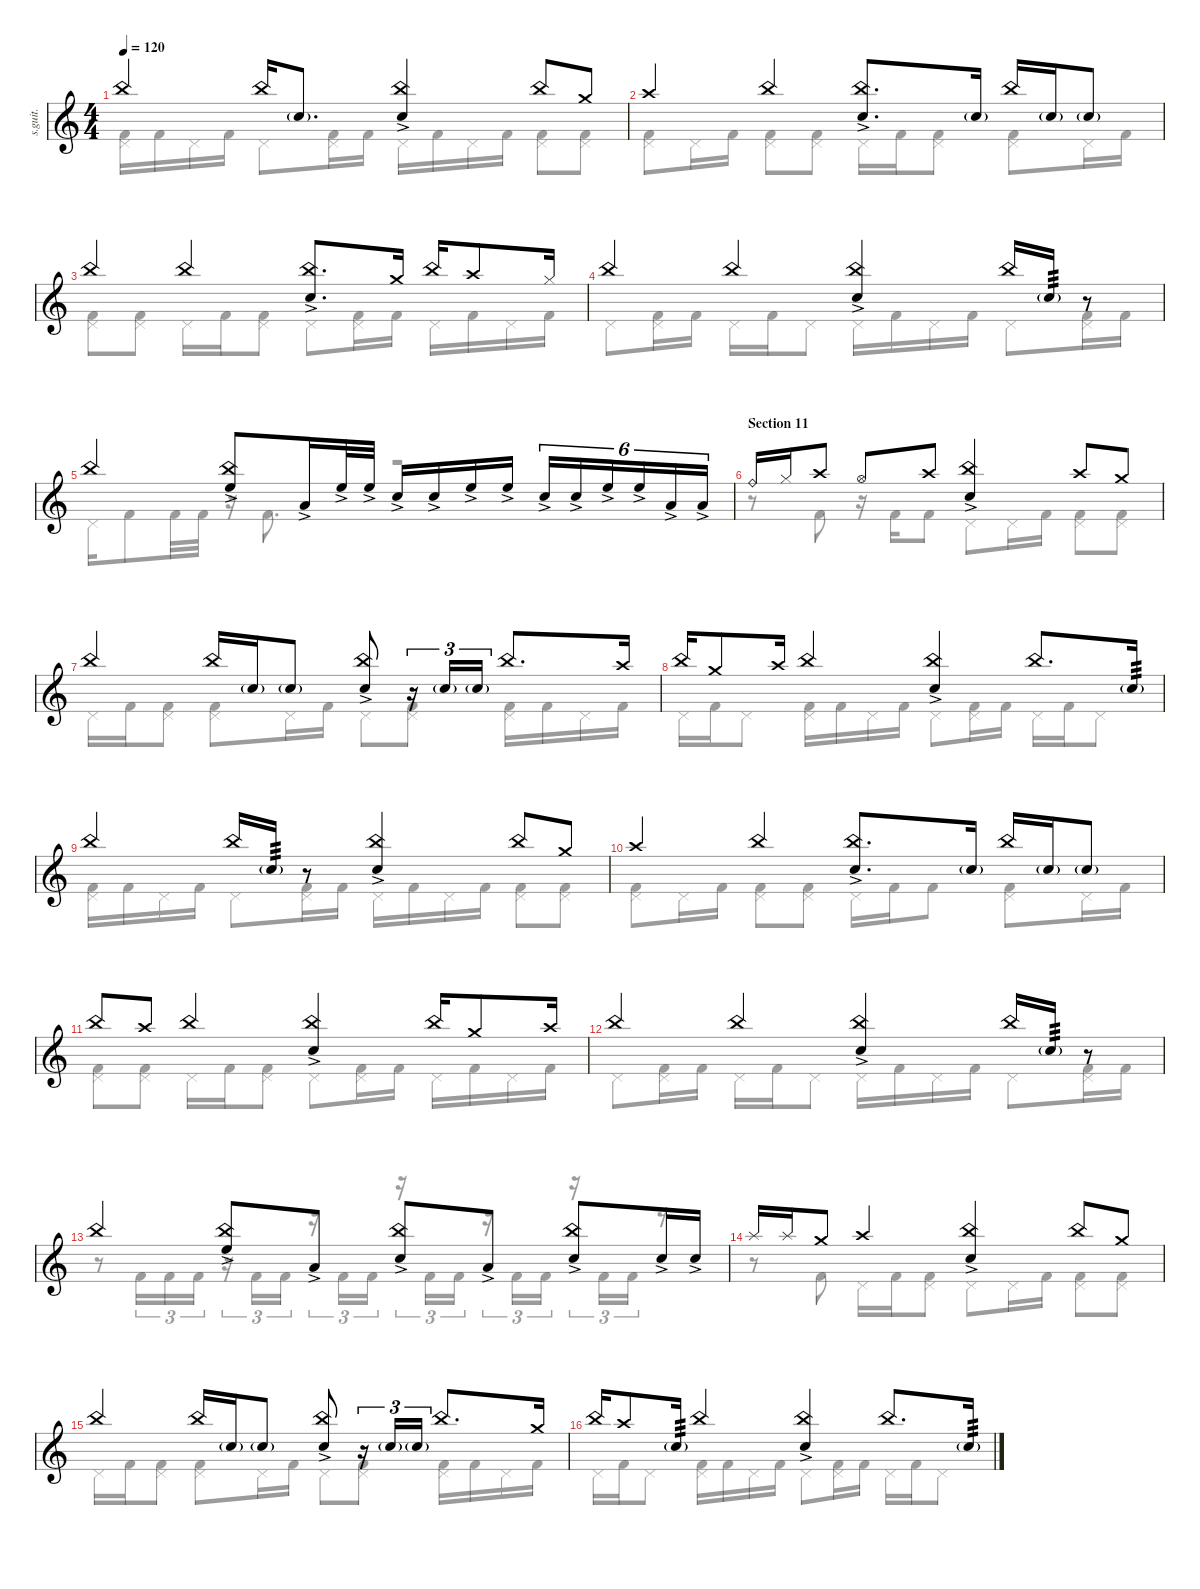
\defaultSystemsLayout 4
\hideDynamics
\bracketExtendMode nobrackets
\track ("Matt Halpern" "s.guit.") {instrument percussion}
\staff {score}
\articulation defaults
\voice
\ts (4 4)
\tempo 120
\clef g2
\ks c "China (hit)".4{lyrics (0 "") lyrics (1 "") lyrics (2 "") lyrics (3 "") lyrics (4 "") dy f} "China (hit)".16{lyrics (0 "") lyrics (1 "") lyrics (2 "") lyrics (3 "") lyrics (4 "")} "Snare (hit) 2"{g}.8{d lyrics (0 "") lyrics (1 "") lyrics (2 "") lyrics (3 "") lyrics (4 "")}
("China (hit)" "Snare (hit) 2"{ac}).4{lyrics (0 "") lyrics (1 "") lyrics (2 "") lyrics (3 "") lyrics (4 "")} "China (hit)".8{lyrics (0 "") lyrics (1 "") lyrics (2 "") lyrics (3 "") lyrics (4 "")} "Crash medium (hit)".8{lyrics (0 "") lyrics (1 "") lyrics (2 "") lyrics (3 "") lyrics (4 "")} |
"Crash high (hit)".4{lyrics (0 "") lyrics (1 "") lyrics (2 "") lyrics (3 "") lyrics (4 "")} "China (hit)".4{lyrics (0 "") lyrics (1 "") lyrics (2 "") lyrics (3 "") lyrics (4 "")} ("China (hit)" "Snare (hit) 2"{ac}).8{d lyrics (0 "") lyrics (1 "") lyrics (2 "") lyrics (3 "") lyrics (4 "")} "Snare (hit) 2"{g}.16{lyrics (0 "") lyrics (1 "") lyrics (2 "") lyrics (3 "") lyrics (4 "")} "China (hit)".16{lyrics (0 "") lyrics (1 "") lyrics (2 "") lyrics (3 "") lyrics (4 "")} "Snare (hit) 2"{g}.16{lyrics (0 "") lyrics (1 "") lyrics (2 "") lyrics (3 "") lyrics (4 "")} "Snare (hit) 2"{g}.8{lyrics (0 "") lyrics (1 "") lyrics (2 "") lyrics (3 "") lyrics (4 "")} |
"China (hit)".4{lyrics (0 "") lyrics (1 "") lyrics (2 "") lyrics (3 "") lyrics (4 "")} "China (hit)".4{lyrics (0 "") lyrics (1 "") lyrics (2 "") lyrics (3 "") lyrics (4 "")} ("China (hit)" "Snare (hit) 2"{ac}).8{d lyrics (0 "") lyrics (1 "") lyrics (2 "") lyrics (3 "") lyrics (4 "")} "Crash medium (hit)".16{lyrics (0 "") lyrics (1 "") lyrics (2 "") lyrics (3 "") lyrics (4 "")} "China (hit)".16{lyrics (0 "") lyrics (1 "") lyrics (2 "") lyrics (3 "") lyrics (4 "")} "Crash high (hit)".8{lyrics (0 "") lyrics (1 "") lyrics (2 "") lyrics (3 "") lyrics (4 "")} "Hi-Hat (closed)".16{lyrics (0 "") lyrics (1 "") lyrics (2 "") lyrics (3 "") lyrics (4 "")} |
"China (hit)".4{lyrics (0 "") lyrics (1 "") lyrics (2 "") lyrics (3 "") lyrics (4 "")} "China (hit)".4{lyrics (0 "") lyrics (1 "") lyrics (2 "") lyrics (3 "") lyrics (4 "")} ("China (hit)" "Snare (hit) 2"{ac}).4{lyrics (0 "") lyrics (1 "") lyrics (2 "") lyrics (3 "") lyrics (4 "")} "China (hit)".16{lyrics (0 "") lyrics (1 "") lyrics (2 "") lyrics (3 "") lyrics (4 "")} "Snare (hit) 2"{g}.16{lyrics (0 "") lyrics (1 "") lyrics (2 "") lyrics (3 "") lyrics (4 "") tp 3} r.8 |
"China (hit)".4{lyrics (0 "") lyrics (1 "") lyrics (2 "") lyrics (3 "") lyrics (4 "")} ("High Floor Tom (hit)"{ac} "China (hit)").8{lyrics (0 "") lyrics (1 "") lyrics (2 "") lyrics (3 "") lyrics (4 "")} "Low Tom (hit)"{ac}.16{lyrics (0 "") lyrics (1 "") lyrics (2 "") lyrics (3 "") lyrics (4 "")} "High Floor Tom (hit)"{ac}.32{lyrics (0 "") lyrics (1 "") lyrics (2 "") lyrics (3 "") lyrics (4 "")} "High Floor Tom (hit)"{ac}.32{lyrics (0 "") lyrics (1 "") lyrics (2 "") lyrics (3 "") lyrics (4 "")} "Snare (hit) 2"{ac}.16{lyrics (0 "") lyrics (1 "") lyrics (2 "") lyrics (3 "") lyrics (4 "")} "Snare (hit) 2"{ac}.16{lyrics (0 "") lyrics (1 "") lyrics (2 "") lyrics (3 "") lyrics (4 "")} "High Floor Tom (hit)"{ac}.16{lyrics (0 "") lyrics (1 "") lyrics (2 "") lyrics (3 "") lyrics (4 "")} "High Floor Tom (hit)"{ac}.16{lyrics (0 "") lyrics (1 "") lyrics (2 "") lyrics (3 "") lyrics (4 "")} "Snare (hit) 2"{ac}.16{tu (6 4) lyrics (0 "") lyrics (1 "") lyrics (2 "") lyrics (3 "") lyrics (4 "")} "Snare (hit) 2"{ac}.16{tu (6 4) lyrics (0 "") lyrics (1 "") lyrics (2 "") lyrics (3 "") lyrics (4 "")} "High Floor Tom (hit)"{ac}.16{tu (6 4) lyrics (0 "") lyrics (1 "") lyrics (2 "") lyrics (3 "") lyrics (4 "")} "High Floor Tom (hit)"{ac}.16{tu (6 4) lyrics (0 "") lyrics (1 "") lyrics (2 "") lyrics (3 "") lyrics (4 "")} "Low Tom (hit)"{ac}.16{tu (6 4) lyrics (0 "") lyrics (1 "") lyrics (2 "") lyrics (3 "") lyrics (4 "")} "Low Tom (hit)"{ac}.16{tu (6 4) lyrics (0 "") lyrics (1 "") lyrics (2 "") lyrics (3 "") lyrics (4 "")} |
\section ("" "Section 11")
"Ride (bell)".16{lyrics (0 "") lyrics (1 "") lyrics (2 "") lyrics (3 "") lyrics (4 "")} "Hi-Hat (closed)".16{lyrics (0 "") lyrics (1 "") lyrics (2 "") lyrics (3 "") lyrics (4 "")} "Crash high (hit)".8{lyrics (0 "") lyrics (1 "") lyrics (2 "") lyrics (3 "") lyrics (4 "")} "Hi-Hat (open)".8{lyrics (0 "") lyrics (1 "") lyrics (2 "") lyrics (3 "") lyrics (4 "")} "Crash high (hit)".8{lyrics (0 "") lyrics (1 "") lyrics (2 "") lyrics (3 "") lyrics (4 "")} ("China (hit)" "Snare (hit) 2"{ac}).4{lyrics (0 "") lyrics (1 "") lyrics (2 "") lyrics (3 "") lyrics (4 "")} "Crash high (hit)".8{lyrics (0 "") lyrics (1 "") lyrics (2 "") lyrics (3 "") lyrics (4 "")} "Crash medium (hit)".8{lyrics (0 "") lyrics (1 "") lyrics (2 "") lyrics (3 "") lyrics (4 "")} |
"China (hit)".4{lyrics (0 "") lyrics (1 "") lyrics (2 "") lyrics (3 "") lyrics (4 "")} "China (hit)".16{lyrics (0 "") lyrics (1 "") lyrics (2 "") lyrics (3 "") lyrics (4 "")} "Snare (hit) 2"{g}.16{lyrics (0 "") lyrics (1 "") lyrics (2 "") lyrics (3 "") lyrics (4 "")} "Snare (hit) 2"{g}.8{lyrics (0 "") lyrics (1 "") lyrics (2 "") lyrics (3 "") lyrics (4 "")} ("Snare (hit) 2"{ac} "China (hit)").8{lyrics (0 "") lyrics (1 "") lyrics (2 "") lyrics (3 "") lyrics (4 "")} r.16{tu (3 2)} "Snare (hit) 2"{g}.16{tu (3 2) lyrics (0 "") lyrics (1 "") lyrics (2 "") lyrics (3 "") lyrics (4 "")} "Snare (hit) 2"{g}.16{tu (3 2) lyrics (0 "") lyrics (1 "") lyrics (2 "") lyrics (3 "") lyrics (4 "")} "China (hit)".8{d lyrics (0 "") lyrics (1 "") lyrics (2 "") lyrics (3 "") lyrics (4 "")} "Crash high (hit)".16{lyrics (0 "") lyrics (1 "") lyrics (2 "") lyrics (3 "") lyrics (4 "")} |
"China (hit)".16{lyrics (0 "") lyrics (1 "") lyrics (2 "") lyrics (3 "") lyrics (4 "")} "Crash medium (hit)".8{lyrics (0 "") lyrics (1 "") lyrics (2 "") lyrics (3 "") lyrics (4 "")} "Crash high (hit)".16{lyrics (0 "") lyrics (1 "") lyrics (2 "") lyrics (3 "") lyrics (4 "")} "China (hit)".4{lyrics (0 "") lyrics (1 "") lyrics (2 "") lyrics (3 "") lyrics (4 "")} ("China (hit)" "Snare (hit) 2"{ac}).4{lyrics (0 "") lyrics (1 "") lyrics (2 "") lyrics (3 "") lyrics (4 "")} "China (hit)".8{d lyrics (0 "") lyrics (1 "") lyrics (2 "") lyrics (3 "") lyrics (4 "")} "Snare (hit) 2"{g}.16{lyrics (0 "") lyrics (1 "") lyrics (2 "") lyrics (3 "") lyrics (4 "") tp 3} |
"China (hit)".4{lyrics (0 "") lyrics (1 "") lyrics (2 "") lyrics (3 "") lyrics (4 "")} "China (hit)".16{lyrics (0 "") lyrics (1 "") lyrics (2 "") lyrics (3 "") lyrics (4 "")} "Snare (hit) 2"{g}.16{lyrics (0 "") lyrics (1 "") lyrics (2 "") lyrics (3 "") lyrics (4 "") tp 3} r.8 ("China (hit)" "Snare (hit) 2"{ac}).4{lyrics (0 "") lyrics (1 "") lyrics (2 "") lyrics (3 "") lyrics (4 "")} "China (hit)".8{lyrics (0 "") lyrics (1 "") lyrics (2 "") lyrics (3 "") lyrics (4 "")} "Crash medium (hit)".8{lyrics (0 "") lyrics (1 "") lyrics (2 "") lyrics (3 "") lyrics (4 "")} |
"Crash high (hit)".4{lyrics (0 "") lyrics (1 "") lyrics (2 "") lyrics (3 "") lyrics (4 "")} "China (hit)".4{lyrics (0 "") lyrics (1 "") lyrics (2 "") lyrics (3 "") lyrics (4 "")} ("Snare (hit) 2"{ac} "China (hit)").8{d lyrics (0 "") lyrics (1 "") lyrics (2 "") lyrics (3 "") lyrics (4 "")} "Snare (hit) 2"{g}.16{lyrics (0 "") lyrics (1 "") lyrics (2 "") lyrics (3 "") lyrics (4 "")} "China (hit)".16{lyrics (0 "") lyrics (1 "") lyrics (2 "") lyrics (3 "") lyrics (4 "")} "Snare (hit) 2"{g}.16{lyrics (0 "") lyrics (1 "") lyrics (2 "") lyrics (3 "") lyrics (4 "")} "Snare (hit) 2"{g}.8{lyrics (0 "") lyrics (1 "") lyrics (2 "") lyrics (3 "") lyrics (4 "")} |
"China (hit)".8{lyrics (0 "") lyrics (1 "") lyrics (2 "") lyrics (3 "") lyrics (4 "")} "Crash high (hit)".8{lyrics (0 "") lyrics (1 "") lyrics (2 "") lyrics (3 "") lyrics (4 "")} "China (hit)".4{lyrics (0 "") lyrics (1 "") lyrics (2 "") lyrics (3 "") lyrics (4 "")} ("China (hit)" "Snare (hit) 2"{ac}).4{lyrics (0 "") lyrics (1 "") lyrics (2 "") lyrics (3 "") lyrics (4 "")} "China (hit)".16{lyrics (0 "") lyrics (1 "") lyrics (2 "") lyrics (3 "") lyrics (4 "")} "Crash medium (hit)".8{lyrics (0 "") lyrics (1 "") lyrics (2 "") lyrics (3 "") lyrics (4 "")} "Crash high (hit)".16{lyrics (0 "") lyrics (1 "") lyrics (2 "") lyrics (3 "") lyrics (4 "")} |
"China (hit)".4{lyrics (0 "") lyrics (1 "") lyrics (2 "") lyrics (3 "") lyrics (4 "")} "China (hit)".4{lyrics (0 "") lyrics (1 "") lyrics (2 "") lyrics (3 "") lyrics (4 "")} ("China (hit)" "Snare (hit) 2"{ac}).4{lyrics (0 "") lyrics (1 "") lyrics (2 "") lyrics (3 "") lyrics (4 "")} "China (hit)".16{lyrics (0 "") lyrics (1 "") lyrics (2 "") lyrics (3 "") lyrics (4 "")} "Snare (hit) 2"{g}.16{lyrics (0 "") lyrics (1 "") lyrics (2 "") lyrics (3 "") lyrics (4 "") tp 3} r.8 |
"China (hit)".4{lyrics (0 "") lyrics (1 "") lyrics (2 "") lyrics (3 "") lyrics (4 "")} ("China (hit)" "High Floor Tom (hit)"{ac}).8{lyrics (0 "") lyrics (1 "") lyrics (2 "") lyrics (3 "") lyrics (4 "")} "Low Tom (hit)"{ac}.8{lyrics (0 "") lyrics (1 "") lyrics (2 "") lyrics (3 "") lyrics (4 "")} ("Snare (hit) 2"{ac} "China (hit)").8{lyrics (0 "") lyrics (1 "") lyrics (2 "") lyrics (3 "") lyrics (4 "")} "Low Tom (hit)"{ac}.8{lyrics (0 "") lyrics (1 "") lyrics (2 "") lyrics (3 "") lyrics (4 "")} ("Snare (hit) 2"{ac} "China (hit)").8{lyrics (0 "") lyrics (1 "") lyrics (2 "") lyrics (3 "") lyrics (4 "")} "Snare (hit) 2"{ac}.16{lyrics (0 "") lyrics (1 "") lyrics (2 "") lyrics (3 "") lyrics (4 "")} "Snare (hit) 2"{ac}.16{lyrics (0 "") lyrics (1 "") lyrics (2 "") lyrics (3 "") lyrics (4 "")} |
"Splash (hit)".16{lyrics (0 "") lyrics (1 "") lyrics (2 "") lyrics (3 "") lyrics (4 "")} "Splash (hit)".16{lyrics (0 "") lyrics (1 "") lyrics (2 "") lyrics (3 "") lyrics (4 "")} "Crash medium (hit)".8{lyrics (0 "") lyrics (1 "") lyrics (2 "") lyrics (3 "") lyrics (4 "")} "Crash high (hit)".4{lyrics (0 "") lyrics (1 "") lyrics (2 "") lyrics (3 "") lyrics (4 "")} ("China (hit)" "Snare (hit) 2"{ac}).4{lyrics (0 "") lyrics (1 "") lyrics (2 "") lyrics (3 "") lyrics (4 "")} "China (hit)".8{lyrics (0 "") lyrics (1 "") lyrics (2 "") lyrics (3 "") lyrics (4 "")} "Crash medium (hit)".8{lyrics (0 "") lyrics (1 "") lyrics (2 "") lyrics (3 "") lyrics (4 "")} |
"China (hit)".4{lyrics (0 "") lyrics (1 "") lyrics (2 "") lyrics (3 "") lyrics (4 "")} "China (hit)".16{lyrics (0 "") lyrics (1 "") lyrics (2 "") lyrics (3 "") lyrics (4 "")} "Snare (hit) 2"{g}.16{lyrics (0 "") lyrics (1 "") lyrics (2 "") lyrics (3 "") lyrics (4 "")} "Snare (hit) 2"{g}.8{lyrics (0 "") lyrics (1 "") lyrics (2 "") lyrics (3 "") lyrics (4 "")} ("China (hit)" "Snare (hit) 2"{ac}).8{lyrics (0 "") lyrics (1 "") lyrics (2 "") lyrics (3 "") lyrics (4 "")} r.16{tu (3 2)} "Snare (hit) 2"{g}.16{tu (3 2) lyrics (0 "") lyrics (1 "") lyrics (2 "") lyrics (3 "") lyrics (4 "")} "Snare (hit) 2"{g}.16{tu (3 2) lyrics (0 "") lyrics (1 "") lyrics (2 "") lyrics (3 "") lyrics (4 "")} "China (hit)".8{d lyrics (0 "") lyrics (1 "") lyrics (2 "") lyrics (3 "") lyrics (4 "")} "Crash medium (hit)".16{lyrics (0 "") lyrics (1 "") lyrics (2 "") lyrics (3 "") lyrics (4 "")} |
"China (hit)".16{lyrics (0 "") lyrics (1 "") lyrics (2 "") lyrics (3 "") lyrics (4 "")} "Crash high (hit)".8{lyrics (0 "") lyrics (1 "") lyrics (2 "") lyrics (3 "") lyrics (4 "")} "Snare (hit) 2"{g}.16{lyrics (0 "") lyrics (1 "") lyrics (2 "") lyrics (3 "") lyrics (4 "") tp 3} "China (hit)".4{lyrics (0 "") lyrics (1 "") lyrics (2 "") lyrics (3 "") lyrics (4 "")} ("China (hit)" "Snare (hit) 2"{ac}).4{lyrics (0 "") lyrics (1 "") lyrics (2 "") lyrics (3 "") lyrics (4 "")} "China (hit)".8{d lyrics (0 "") lyrics (1 "") lyrics (2 "") lyrics (3 "") lyrics (4 "")} "Snare (hit) 2"{g}.16{lyrics (0 "") lyrics (1 "") lyrics (2 "") lyrics (3 "") lyrics (4 "") tp 3}
\voice
\clef g2
\ottava regular
\simile none
\ks c
("Pedal Hi-Hat (hit)" "Kick (hit) 2").16{lyrics (0 "") lyrics (1 "") lyrics (2 "") lyrics (3 "") lyrics (4 "") dy f} "Kick (hit) 2".16{lyrics (0 "") lyrics (1 "") lyrics (2 "") lyrics (3 "") lyrics (4 "")} "Pedal Hi-Hat (hit)".16{lyrics (0 "") lyrics (1 "") lyrics (2 "") lyrics (3 "") lyrics (4 "")} "Kick (hit) 2".16{lyrics (0 "") lyrics (1 "") lyrics (2 "") lyrics (3 "") lyrics (4 "")} "Pedal Hi-Hat (hit)".8{lyrics (0 "") lyrics (1 "") lyrics (2 "") lyrics (3 "") lyrics (4 "")} ("Pedal Hi-Hat (hit)" "Kick (hit) 2").16{lyrics (0 "") lyrics (1 "") lyrics (2 "") lyrics (3 "") lyrics (4 "")} "Kick (hit) 2".16{lyrics (0 "") lyrics (1 "") lyrics (2 "") lyrics (3 "") lyrics (4 "")} "Pedal Hi-Hat (hit)".16{lyrics (0 "") lyrics (1 "") lyrics (2 "") lyrics (3 "") lyrics (4 "")} "Kick (hit) 2".16{lyrics (0 "") lyrics (1 "") lyrics (2 "") lyrics (3 "") lyrics (4 "")} "Pedal Hi-Hat (hit)".16{lyrics (0 "") lyrics (1 "") lyrics (2 "") lyrics (3 "") lyrics (4 "")} "Kick (hit) 2".16{lyrics (0 "") lyrics (1 "") lyrics (2 "") lyrics (3 "") lyrics (4 "")} ("Pedal Hi-Hat (hit)" "Kick (hit) 2").8{lyrics (0 "") lyrics (1 "") lyrics (2 "") lyrics (3 "") lyrics (4 "")} ("Kick (hit) 2" "Pedal Hi-Hat (hit)").8{lyrics (0 "") lyrics (1 "") lyrics (2 "") lyrics (3 "") lyrics (4 "")} |
("Kick (hit) 2" "Pedal Hi-Hat (hit)").8{lyrics (0 "") lyrics (1 "") lyrics (2 "") lyrics (3 "") lyrics (4 "")} "Pedal Hi-Hat (hit)".16{lyrics (0 "") lyrics (1 "") lyrics (2 "") lyrics (3 "") lyrics (4 "")} "Kick (hit) 2".16{lyrics (0 "") lyrics (1 "") lyrics (2 "") lyrics (3 "") lyrics (4 "")} ("Pedal Hi-Hat (hit)" "Kick (hit) 2").8{lyrics (0 "") lyrics (1 "") lyrics (2 "") lyrics (3 "") lyrics (4 "")} ("Pedal Hi-Hat (hit)" "Kick (hit) 2").8{lyrics (0 "") lyrics (1 "") lyrics (2 "") lyrics (3 "") lyrics (4 "")} "Pedal Hi-Hat (hit)".16{lyrics (0 "") lyrics (1 "") lyrics (2 "") lyrics (3 "") lyrics (4 "")} "Kick (hit) 2".16{lyrics (0 "") lyrics (1 "") lyrics (2 "") lyrics (3 "") lyrics (4 "")} ("Kick (hit) 2" "Pedal Hi-Hat (hit)").8{lyrics (0 "") lyrics (1 "") lyrics (2 "") lyrics (3 "") lyrics (4 "")} ("Pedal Hi-Hat (hit)" "Kick (hit) 2").8{lyrics (0 "") lyrics (1 "") lyrics (2 "") lyrics (3 "") lyrics (4 "")} "Pedal Hi-Hat (hit)".16{lyrics (0 "") lyrics (1 "") lyrics (2 "") lyrics (3 "") lyrics (4 "")} "Kick (hit) 2".16{lyrics (0 "") lyrics (1 "") lyrics (2 "") lyrics (3 "") lyrics (4 "")} |
("Kick (hit) 2" "Pedal Hi-Hat (hit)").8{lyrics (0 "") lyrics (1 "") lyrics (2 "") lyrics (3 "") lyrics (4 "")} ("Kick (hit) 2" "Pedal Hi-Hat (hit)").8{lyrics (0 "") lyrics (1 "") lyrics (2 "") lyrics (3 "") lyrics (4 "")} "Pedal Hi-Hat (hit)".16{lyrics (0 "") lyrics (1 "") lyrics (2 "") lyrics (3 "") lyrics (4 "")} "Kick (hit) 2".16{lyrics (0 "") lyrics (1 "") lyrics (2 "") lyrics (3 "") lyrics (4 "")} ("Kick (hit) 2" "Pedal Hi-Hat (hit)").8{lyrics (0 "") lyrics (1 "") lyrics (2 "") lyrics (3 "") lyrics (4 "")} "Pedal Hi-Hat (hit)".8{lyrics (0 "") lyrics (1 "") lyrics (2 "") lyrics (3 "") lyrics (4 "")} ("Pedal Hi-Hat (hit)" "Kick (hit) 2").16{lyrics (0 "") lyrics (1 "") lyrics (2 "") lyrics (3 "") lyrics (4 "")} "Kick (hit) 2".16{lyrics (0 "") lyrics (1 "") lyrics (2 "") lyrics (3 "") lyrics (4 "")} "Pedal Hi-Hat (hit)".16{lyrics (0 "") lyrics (1 "") lyrics (2 "") lyrics (3 "") lyrics (4 "")} "Kick (hit) 2".16{lyrics (0 "") lyrics (1 "") lyrics (2 "") lyrics (3 "") lyrics (4 "")} "Pedal Hi-Hat (hit)".16{lyrics (0 "") lyrics (1 "") lyrics (2 "") lyrics (3 "") lyrics (4 "")} "Kick (hit) 2".16{lyrics (0 "") lyrics (1 "") lyrics (2 "") lyrics (3 "") lyrics (4 "")} |
"Pedal Hi-Hat (hit)".8{lyrics (0 "") lyrics (1 "") lyrics (2 "") lyrics (3 "") lyrics (4 "")} ("Kick (hit) 2" "Pedal Hi-Hat (hit)").16{lyrics (0 "") lyrics (1 "") lyrics (2 "") lyrics (3 "") lyrics (4 "")} "Kick (hit) 2".16{lyrics (0 "") lyrics (1 "") lyrics (2 "") lyrics (3 "") lyrics (4 "")} "Pedal Hi-Hat (hit)".16{lyrics (0 "") lyrics (1 "") lyrics (2 "") lyrics (3 "") lyrics (4 "")} "Kick (hit) 2".16{lyrics (0 "") lyrics (1 "") lyrics (2 "") lyrics (3 "") lyrics (4 "")} "Pedal Hi-Hat (hit)".8{lyrics (0 "") lyrics (1 "") lyrics (2 "") lyrics (3 "") lyrics (4 "")} "Pedal Hi-Hat (hit)".16{lyrics (0 "") lyrics (1 "") lyrics (2 "") lyrics (3 "") lyrics (4 "")} "Kick (hit) 2".16{lyrics (0 "") lyrics (1 "") lyrics (2 "") lyrics (3 "") lyrics (4 "")} "Pedal Hi-Hat (hit)".16{lyrics (0 "") lyrics (1 "") lyrics (2 "") lyrics (3 "") lyrics (4 "")} "Kick (hit) 2".16{lyrics (0 "") lyrics (1 "") lyrics (2 "") lyrics (3 "") lyrics (4 "")} "Pedal Hi-Hat (hit)".8{lyrics (0 "") lyrics (1 "") lyrics (2 "") lyrics (3 "") lyrics (4 "")} ("Kick (hit) 2" "Pedal Hi-Hat (hit)").16{lyrics (0 "") lyrics (1 "") lyrics (2 "") lyrics (3 "") lyrics (4 "")} "Kick (hit) 2".16{lyrics (0 "") lyrics (1 "") lyrics (2 "") lyrics (3 "") lyrics (4 "")} |
"Pedal Hi-Hat (hit)".16{lyrics (0 "") lyrics (1 "") lyrics (2 "") lyrics (3 "") lyrics (4 "")} "Kick (hit) 2".8{lyrics (0 "") lyrics (1 "") lyrics (2 "") lyrics (3 "") lyrics (4 "")} "Kick (hit) 2".32{lyrics (0 "") lyrics (1 "") lyrics (2 "") lyrics (3 "") lyrics (4 "")} "Kick (hit) 2".32{lyrics (0 "") lyrics (1 "") lyrics (2 "") lyrics (3 "") lyrics (4 "")} r.16 "Kick (hit) 2".8{d lyrics (0 "") lyrics (1 "") lyrics (2 "") lyrics (3 "") lyrics (4 "")} r.2 |
r.8 "Kick (hit) 2".8{lyrics (0 "") lyrics (1 "") lyrics (2 "") lyrics (3 "") lyrics (4 "")} r.16 "Kick (hit) 2".16{lyrics (0 "") lyrics (1 "") lyrics (2 "") lyrics (3 "") lyrics (4 "")} "Kick (hit) 2".8{lyrics (0 "") lyrics (1 "") lyrics (2 "") lyrics (3 "") lyrics (4 "")} "Pedal Hi-Hat (hit)".8{lyrics (0 "") lyrics (1 "") lyrics (2 "") lyrics (3 "") lyrics (4 "")} "Pedal Hi-Hat (hit)".16{lyrics (0 "") lyrics (1 "") lyrics (2 "") lyrics (3 "") lyrics (4 "")} "Kick (hit) 2".16{lyrics (0 "") lyrics (1 "") lyrics (2 "") lyrics (3 "") lyrics (4 "")} ("Kick (hit) 2" "Pedal Hi-Hat (hit)").8{lyrics (0 "") lyrics (1 "") lyrics (2 "") lyrics (3 "") lyrics (4 "")} ("Kick (hit) 2" "Pedal Hi-Hat (hit)").8{lyrics (0 "") lyrics (1 "") lyrics (2 "") lyrics (3 "") lyrics (4 "")} |
"Pedal Hi-Hat (hit)".16{lyrics (0 "") lyrics (1 "") lyrics (2 "") lyrics (3 "") lyrics (4 "")} "Kick (hit) 2".16{lyrics (0 "") lyrics (1 "") lyrics (2 "") lyrics (3 "") lyrics (4 "")} ("Kick (hit) 2" "Pedal Hi-Hat (hit)").8{lyrics (0 "") lyrics (1 "") lyrics (2 "") lyrics (3 "") lyrics (4 "")} ("Pedal Hi-Hat (hit)" "Kick (hit) 2").8{lyrics (0 "") lyrics (1 "") lyrics (2 "") lyrics (3 "") lyrics (4 "")} "Pedal Hi-Hat (hit)".16{lyrics (0 "") lyrics (1 "") lyrics (2 "") lyrics (3 "") lyrics (4 "")} "Kick (hit) 2".16{lyrics (0 "") lyrics (1 "") lyrics (2 "") lyrics (3 "") lyrics (4 "")} "Pedal Hi-Hat (hit)".8{lyrics (0 "") lyrics (1 "") lyrics (2 "") lyrics (3 "") lyrics (4 "")} ("Kick (hit) 2" "Pedal Hi-Hat (hit)").8{lyrics (0 "") lyrics (1 "") lyrics (2 "") lyrics (3 "") lyrics (4 "")} ("Pedal Hi-Hat (hit)" "Kick (hit) 2").16{lyrics (0 "") lyrics (1 "") lyrics (2 "") lyrics (3 "") lyrics (4 "")} "Kick (hit) 2".16{lyrics (0 "") lyrics (1 "") lyrics (2 "") lyrics (3 "") lyrics (4 "")} "Pedal Hi-Hat (hit)".16{lyrics (0 "") lyrics (1 "") lyrics (2 "") lyrics (3 "") lyrics (4 "")} "Kick (hit) 2".16{lyrics (0 "") lyrics (1 "") lyrics (2 "") lyrics (3 "") lyrics (4 "")} |
"Pedal Hi-Hat (hit)".16{lyrics (0 "") lyrics (1 "") lyrics (2 "") lyrics (3 "") lyrics (4 "")} "Kick (hit) 2".16{lyrics (0 "") lyrics (1 "") lyrics (2 "") lyrics (3 "") lyrics (4 "")} "Pedal Hi-Hat (hit)".8{lyrics (0 "") lyrics (1 "") lyrics (2 "") lyrics (3 "") lyrics (4 "")} ("Pedal Hi-Hat (hit)" "Kick (hit) 2").16{lyrics (0 "") lyrics (1 "") lyrics (2 "") lyrics (3 "") lyrics (4 "")} "Kick (hit) 2".16{lyrics (0 "") lyrics (1 "") lyrics (2 "") lyrics (3 "") lyrics (4 "")} "Pedal Hi-Hat (hit)".16{lyrics (0 "") lyrics (1 "") lyrics (2 "") lyrics (3 "") lyrics (4 "")} "Kick (hit) 2".16{lyrics (0 "") lyrics (1 "") lyrics (2 "") lyrics (3 "") lyrics (4 "")} "Pedal Hi-Hat (hit)".8{lyrics (0 "") lyrics (1 "") lyrics (2 "") lyrics (3 "") lyrics (4 "")} ("Pedal Hi-Hat (hit)" "Kick (hit) 2").16{lyrics (0 "") lyrics (1 "") lyrics (2 "") lyrics (3 "") lyrics (4 "")} "Kick (hit) 2".16{lyrics (0 "") lyrics (1 "") lyrics (2 "") lyrics (3 "") lyrics (4 "")} "Pedal Hi-Hat (hit)".16{lyrics (0 "") lyrics (1 "") lyrics (2 "") lyrics (3 "") lyrics (4 "")} "Kick (hit) 2".16{lyrics (0 "") lyrics (1 "") lyrics (2 "") lyrics (3 "") lyrics (4 "")} "Pedal Hi-Hat (hit)".8{lyrics (0 "") lyrics (1 "") lyrics (2 "") lyrics (3 "") lyrics (4 "")} |
("Pedal Hi-Hat (hit)" "Kick (hit) 2").16{lyrics (0 "") lyrics (1 "") lyrics (2 "") lyrics (3 "") lyrics (4 "")} "Kick (hit) 2".16{lyrics (0 "") lyrics (1 "") lyrics (2 "") lyrics (3 "") lyrics (4 "")} "Pedal Hi-Hat (hit)".16{lyrics (0 "") lyrics (1 "") lyrics (2 "") lyrics (3 "") lyrics (4 "")} "Kick (hit) 2".16{lyrics (0 "") lyrics (1 "") lyrics (2 "") lyrics (3 "") lyrics (4 "")} "Pedal Hi-Hat (hit)".8{lyrics (0 "") lyrics (1 "") lyrics (2 "") lyrics (3 "") lyrics (4 "")} ("Pedal Hi-Hat (hit)" "Kick (hit) 2").16{lyrics (0 "") lyrics (1 "") lyrics (2 "") lyrics (3 "") lyrics (4 "")} "Kick (hit) 2".16{lyrics (0 "") lyrics (1 "") lyrics (2 "") lyrics (3 "") lyrics (4 "")} "Pedal Hi-Hat (hit)".16{lyrics (0 "") lyrics (1 "") lyrics (2 "") lyrics (3 "") lyrics (4 "")} "Kick (hit) 2".16{lyrics (0 "") lyrics (1 "") lyrics (2 "") lyrics (3 "") lyrics (4 "")} "Pedal Hi-Hat (hit)".16{lyrics (0 "") lyrics (1 "") lyrics (2 "") lyrics (3 "") lyrics (4 "")} "Kick (hit) 2".16{lyrics (0 "") lyrics (1 "") lyrics (2 "") lyrics (3 "") lyrics (4 "")} ("Kick (hit) 2" "Pedal Hi-Hat (hit)").8{lyrics (0 "") lyrics (1 "") lyrics (2 "") lyrics (3 "") lyrics (4 "")} ("Kick (hit) 2" "Pedal Hi-Hat (hit)").8{lyrics (0 "") lyrics (1 "") lyrics (2 "") lyrics (3 "") lyrics (4 "")} |
("Kick (hit) 2" "Pedal Hi-Hat (hit)").8{lyrics (0 "") lyrics (1 "") lyrics (2 "") lyrics (3 "") lyrics (4 "")} "Pedal Hi-Hat (hit)".16{lyrics (0 "") lyrics (1 "") lyrics (2 "") lyrics (3 "") lyrics (4 "")} "Kick (hit) 2".16{lyrics (0 "") lyrics (1 "") lyrics (2 "") lyrics (3 "") lyrics (4 "")} ("Pedal Hi-Hat (hit)" "Kick (hit) 2").8{lyrics (0 "") lyrics (1 "") lyrics (2 "") lyrics (3 "") lyrics (4 "")} ("Kick (hit) 2" "Pedal Hi-Hat (hit)").8{lyrics (0 "") lyrics (1 "") lyrics (2 "") lyrics (3 "") lyrics (4 "")} "Pedal Hi-Hat (hit)".16{lyrics (0 "") lyrics (1 "") lyrics (2 "") lyrics (3 "") lyrics (4 "")} "Kick (hit) 2".16{lyrics (0 "") lyrics (1 "") lyrics (2 "") lyrics (3 "") lyrics (4 "")} "Kick (hit) 2".8{lyrics (0 "") lyrics (1 "") lyrics (2 "") lyrics (3 "") lyrics (4 "")} ("Pedal Hi-Hat (hit)" "Kick (hit) 2").8{lyrics (0 "") lyrics (1 "") lyrics (2 "") lyrics (3 "") lyrics (4 "")} "Pedal Hi-Hat (hit)".16{lyrics (0 "") lyrics (1 "") lyrics (2 "") lyrics (3 "") lyrics (4 "")} "Kick (hit) 2".16{lyrics (0 "") lyrics (1 "") lyrics (2 "") lyrics (3 "") lyrics (4 "")} |
("Pedal Hi-Hat (hit)" "Kick (hit) 2").8{lyrics (0 "") lyrics (1 "") lyrics (2 "") lyrics (3 "") lyrics (4 "")} ("Kick (hit) 2" "Pedal Hi-Hat (hit)").8{lyrics (0 "") lyrics (1 "") lyrics (2 "") lyrics (3 "") lyrics (4 "")} "Pedal Hi-Hat (hit)".16{lyrics (0 "") lyrics (1 "") lyrics (2 "") lyrics (3 "") lyrics (4 "")} "Kick (hit) 2".16{lyrics (0 "") lyrics (1 "") lyrics (2 "") lyrics (3 "") lyrics (4 "")} ("Pedal Hi-Hat (hit)" "Kick (hit) 2").8{lyrics (0 "") lyrics (1 "") lyrics (2 "") lyrics (3 "") lyrics (4 "")} "Pedal Hi-Hat (hit)".8{lyrics (0 "") lyrics (1 "") lyrics (2 "") lyrics (3 "") lyrics (4 "")} ("Kick (hit) 2" "Pedal Hi-Hat (hit)").16{lyrics (0 "") lyrics (1 "") lyrics (2 "") lyrics (3 "") lyrics (4 "")} "Kick (hit) 2".16{lyrics (0 "") lyrics (1 "") lyrics (2 "") lyrics (3 "") lyrics (4 "")} "Pedal Hi-Hat (hit)".16{lyrics (0 "") lyrics (1 "") lyrics (2 "") lyrics (3 "") lyrics (4 "")} "Kick (hit) 2".16{lyrics (0 "") lyrics (1 "") lyrics (2 "") lyrics (3 "") lyrics (4 "")} "Pedal Hi-Hat (hit)".16{lyrics (0 "") lyrics (1 "") lyrics (2 "") lyrics (3 "") lyrics (4 "")} "Kick (hit) 2".16{lyrics (0 "") lyrics (1 "") lyrics (2 "") lyrics (3 "") lyrics (4 "")} |
"Pedal Hi-Hat (hit)".8{lyrics (0 "") lyrics (1 "") lyrics (2 "") lyrics (3 "") lyrics (4 "")} ("Pedal Hi-Hat (hit)" "Kick (hit) 2").16{lyrics (0 "") lyrics (1 "") lyrics (2 "") lyrics (3 "") lyrics (4 "")} "Kick (hit) 2".16{lyrics (0 "") lyrics (1 "") lyrics (2 "") lyrics (3 "") lyrics (4 "")} "Pedal Hi-Hat (hit)".16{lyrics (0 "") lyrics (1 "") lyrics (2 "") lyrics (3 "") lyrics (4 "")} "Kick (hit) 2".16{lyrics (0 "") lyrics (1 "") lyrics (2 "") lyrics (3 "") lyrics (4 "")} "Pedal Hi-Hat (hit)".8{lyrics (0 "") lyrics (1 "") lyrics (2 "") lyrics (3 "") lyrics (4 "")} "Pedal Hi-Hat (hit)".16{lyrics (0 "") lyrics (1 "") lyrics (2 "") lyrics (3 "") lyrics (4 "")} "Kick (hit) 2".16{lyrics (0 "") lyrics (1 "") lyrics (2 "") lyrics (3 "") lyrics (4 "")} "Pedal Hi-Hat (hit)".16{lyrics (0 "") lyrics (1 "") lyrics (2 "") lyrics (3 "") lyrics (4 "")} "Kick (hit) 2".16{lyrics (0 "") lyrics (1 "") lyrics (2 "") lyrics (3 "") lyrics (4 "")} "Pedal Hi-Hat (hit)".8{lyrics (0 "") lyrics (1 "") lyrics (2 "") lyrics (3 "") lyrics (4 "")} ("Pedal Hi-Hat (hit)" "Kick (hit) 2").16{lyrics (0 "") lyrics (1 "") lyrics (2 "") lyrics (3 "") lyrics (4 "")} "Kick (hit) 2".16{lyrics (0 "") lyrics (1 "") lyrics (2 "") lyrics (3 "") lyrics (4 "")} |
r.8 "Kick (hit) 2".16{tu (3 2) lyrics (0 "") lyrics (1 "") lyrics (2 "") lyrics (3 "") lyrics (4 "")} "Kick (hit) 2".16{tu (3 2) lyrics (0 "") lyrics (1 "") lyrics (2 "") lyrics (3 "") lyrics (4 "")} "Kick (hit) 2".16{tu (3 2) lyrics (0 "") lyrics (1 "") lyrics (2 "") lyrics (3 "") lyrics (4 "")} r.16{tu (3 2)} "Kick (hit) 2".16{tu (3 2) lyrics (0 "") lyrics (1 "") lyrics (2 "") lyrics (3 "") lyrics (4 "")} "Kick (hit) 2".16{tu (3 2) lyrics (0 "") lyrics (1 "") lyrics (2 "") lyrics (3 "") lyrics (4 "")} r.16{tu (3 2)} "Kick (hit) 2".16{tu (3 2) lyrics (0 "") lyrics (1 "") lyrics (2 "") lyrics (3 "") lyrics (4 "")} "Kick (hit) 2".16{tu (3 2) lyrics (0 "") lyrics (1 "") lyrics (2 "") lyrics (3 "") lyrics (4 "")} r.16{tu (3 2)} "Kick (hit) 2".16{tu (3 2) lyrics (0 "") lyrics (1 "") lyrics (2 "") lyrics (3 "") lyrics (4 "")} "Kick (hit) 2".16{tu (3 2) lyrics (0 "") lyrics (1 "") lyrics (2 "") lyrics (3 "") lyrics (4 "")} r.16{tu (3 2)} "Kick (hit) 2".16{tu (3 2) lyrics (0 "") lyrics (1 "") lyrics (2 "") lyrics (3 "") lyrics (4 "")} "Kick (hit) 2".16{tu (3 2) lyrics (0 "") lyrics (1 "") lyrics (2 "") lyrics (3 "") lyrics (4 "")} r.16{tu (3 2)} "Kick (hit) 2".16{tu (3 2) lyrics (0 "") lyrics (1 "") lyrics (2 "") lyrics (3 "") lyrics (4 "")} "Kick (hit) 2".16{tu (3 2) lyrics (0 "") lyrics (1 "") lyrics (2 "") lyrics (3 "") lyrics (4 "")} r.8 |
r.8 "Kick (hit) 2".8{lyrics (0 "") lyrics (1 "") lyrics (2 "") lyrics (3 "") lyrics (4 "")} "Pedal Hi-Hat (hit)".16{lyrics (0 "") lyrics (1 "") lyrics (2 "") lyrics (3 "") lyrics (4 "")} "Kick (hit) 2".16{lyrics (0 "") lyrics (1 "") lyrics (2 "") lyrics (3 "") lyrics (4 "")} ("Kick (hit) 2" "Pedal Hi-Hat (hit)").8{lyrics (0 "") lyrics (1 "") lyrics (2 "") lyrics (3 "") lyrics (4 "")} "Pedal Hi-Hat (hit)".8{lyrics (0 "") lyrics (1 "") lyrics (2 "") lyrics (3 "") lyrics (4 "")} "Pedal Hi-Hat (hit)".16{lyrics (0 "") lyrics (1 "") lyrics (2 "") lyrics (3 "") lyrics (4 "")} "Kick (hit) 2".16{lyrics (0 "") lyrics (1 "") lyrics (2 "") lyrics (3 "") lyrics (4 "")} ("Pedal Hi-Hat (hit)" "Kick (hit) 2").8{lyrics (0 "") lyrics (1 "") lyrics (2 "") lyrics (3 "") lyrics (4 "")} ("Kick (hit) 2" "Pedal Hi-Hat (hit)").8{lyrics (0 "") lyrics (1 "") lyrics (2 "") lyrics (3 "") lyrics (4 "")} |
"Pedal Hi-Hat (hit)".16{lyrics (0 "") lyrics (1 "") lyrics (2 "") lyrics (3 "") lyrics (4 "")} "Kick (hit) 2".16{lyrics (0 "") lyrics (1 "") lyrics (2 "") lyrics (3 "") lyrics (4 "")} ("Kick (hit) 2" "Pedal Hi-Hat (hit)").8{lyrics (0 "") lyrics (1 "") lyrics (2 "") lyrics (3 "") lyrics (4 "")} ("Pedal Hi-Hat (hit)" "Kick (hit) 2").8{lyrics (0 "") lyrics (1 "") lyrics (2 "") lyrics (3 "") lyrics (4 "")} "Pedal Hi-Hat (hit)".16{lyrics (0 "") lyrics (1 "") lyrics (2 "") lyrics (3 "") lyrics (4 "")} "Kick (hit) 2".16{lyrics (0 "") lyrics (1 "") lyrics (2 "") lyrics (3 "") lyrics (4 "")} "Pedal Hi-Hat (hit)".8{lyrics (0 "") lyrics (1 "") lyrics (2 "") lyrics (3 "") lyrics (4 "")} ("Pedal Hi-Hat (hit)" "Kick (hit) 2").8{lyrics (0 "") lyrics (1 "") lyrics (2 "") lyrics (3 "") lyrics (4 "")} ("Pedal Hi-Hat (hit)" "Kick (hit) 2").16{lyrics (0 "") lyrics (1 "") lyrics (2 "") lyrics (3 "") lyrics (4 "")} "Kick (hit) 2".16{lyrics (0 "") lyrics (1 "") lyrics (2 "") lyrics (3 "") lyrics (4 "")} "Pedal Hi-Hat (hit)".16{lyrics (0 "") lyrics (1 "") lyrics (2 "") lyrics (3 "") lyrics (4 "")} "Kick (hit) 2".16{lyrics (0 "") lyrics (1 "") lyrics (2 "") lyrics (3 "") lyrics (4 "")} |
"Pedal Hi-Hat (hit)".16{lyrics (0 "") lyrics (1 "") lyrics (2 "") lyrics (3 "") lyrics (4 "")} "Kick (hit) 2".16{lyrics (0 "") lyrics (1 "") lyrics (2 "") lyrics (3 "") lyrics (4 "")} "Pedal Hi-Hat (hit)".8{lyrics (0 "") lyrics (1 "") lyrics (2 "") lyrics (3 "") lyrics (4 "")} ("Pedal Hi-Hat (hit)" "Kick (hit) 2").16{lyrics (0 "") lyrics (1 "") lyrics (2 "") lyrics (3 "") lyrics (4 "")} "Kick (hit) 2".16{lyrics (0 "") lyrics (1 "") lyrics (2 "") lyrics (3 "") lyrics (4 "")} "Pedal Hi-Hat (hit)".16{lyrics (0 "") lyrics (1 "") lyrics (2 "") lyrics (3 "") lyrics (4 "")} "Kick (hit) 2".16{lyrics (0 "") lyrics (1 "") lyrics (2 "") lyrics (3 "") lyrics (4 "")} "Pedal Hi-Hat (hit)".8{lyrics (0 "") lyrics (1 "") lyrics (2 "") lyrics (3 "") lyrics (4 "")} ("Kick (hit) 2" "Pedal Hi-Hat (hit)").16{lyrics (0 "") lyrics (1 "") lyrics (2 "") lyrics (3 "") lyrics (4 "")} "Kick (hit) 2".16{lyrics (0 "") lyrics (1 "") lyrics (2 "") lyrics (3 "") lyrics (4 "")} "Pedal Hi-Hat (hit)".16{lyrics (0 "") lyrics (1 "") lyrics (2 "") lyrics (3 "") lyrics (4 "")} "Kick (hit) 2".16{lyrics (0 "") lyrics (1 "") lyrics (2 "") lyrics (3 "") lyrics (4 "")} "Pedal Hi-Hat (hit)".8{lyrics (0 "") lyrics (1 "") lyrics (2 "") lyrics (3 "") lyrics (4 "")}
